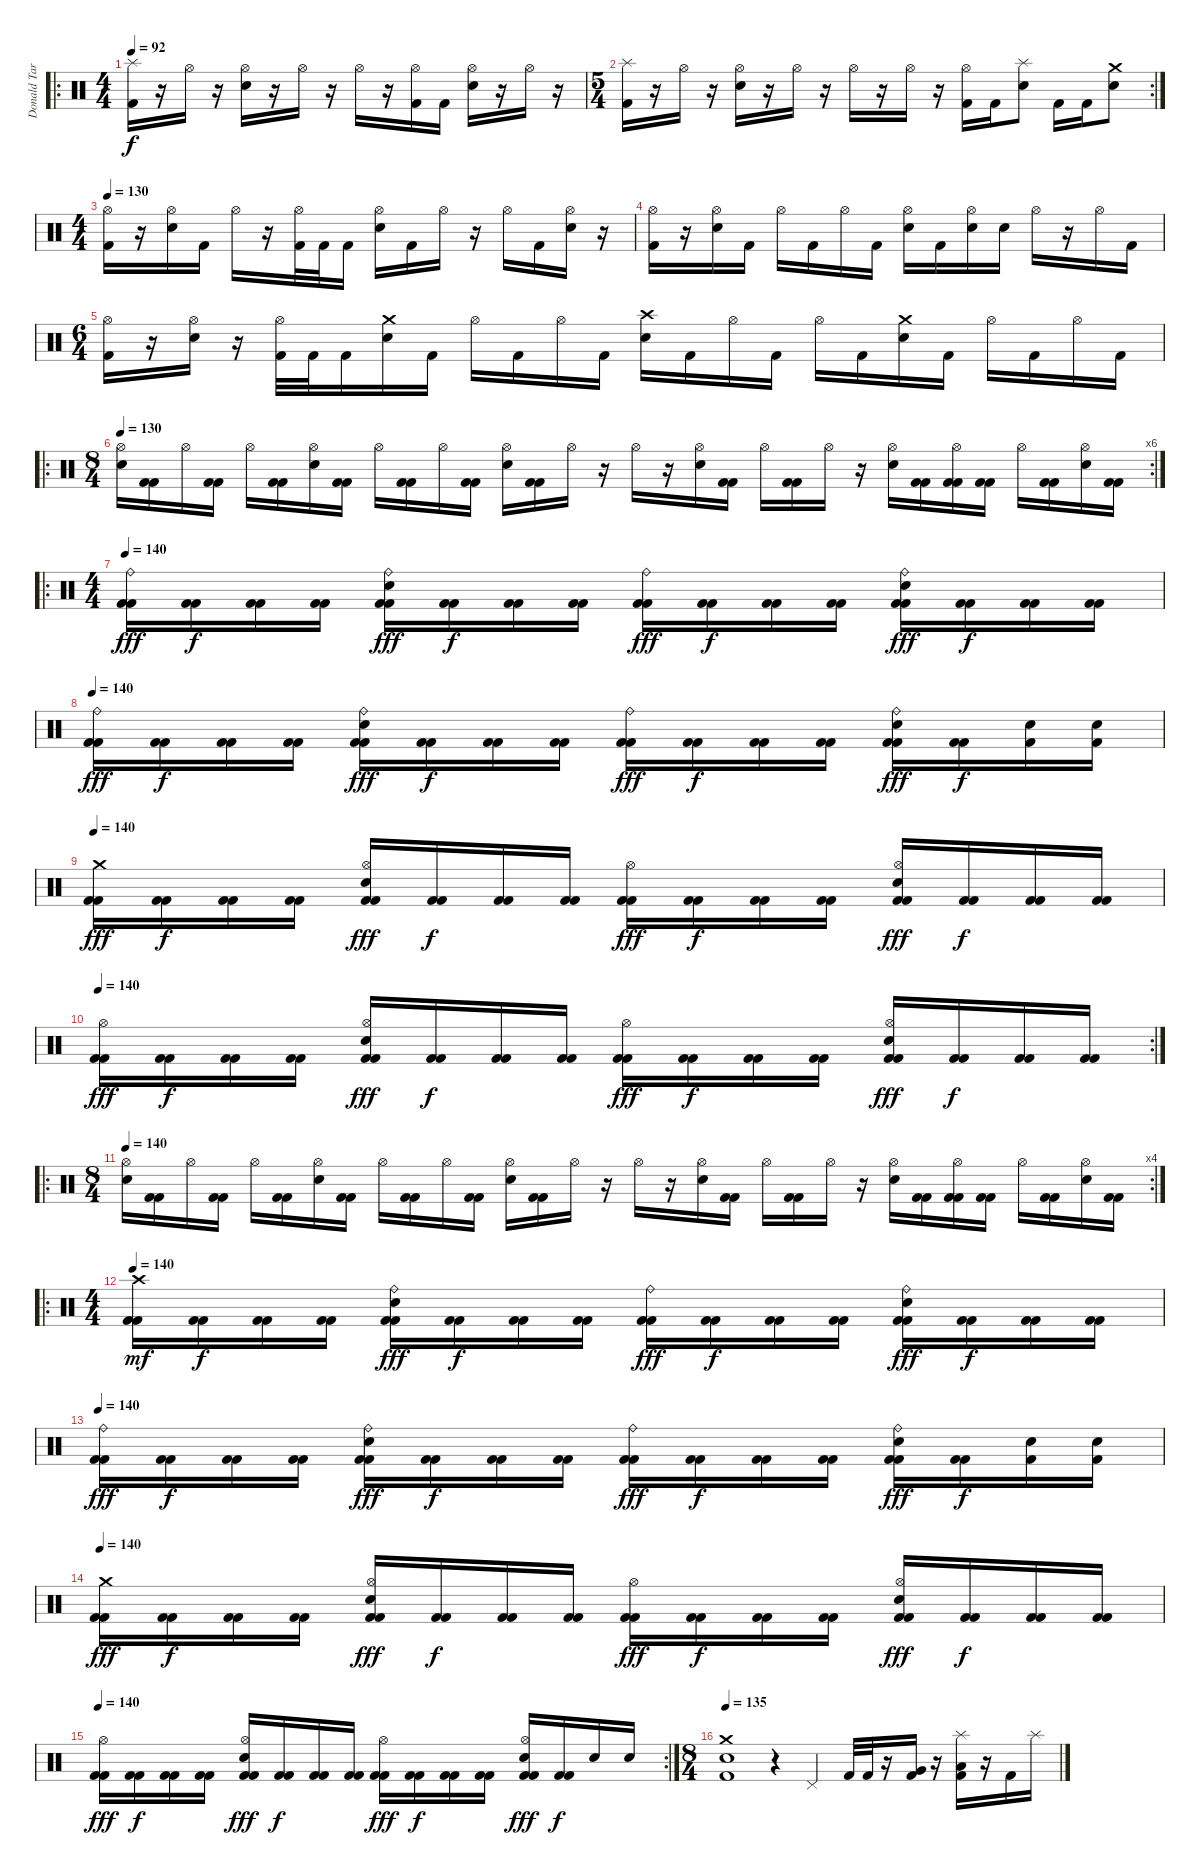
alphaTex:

\track ("Donald Tardy" "Donald Tar") {instrument percussion}
\staff {score}
\articulation defaults
\ro
\ts (4 4)
\tempo 92
\clef neutral
\ks c
("Splash (hit)" "Kick (hit) 2").16{dy f} r.16 "Hi-Hat (open)".16 r.16 ("Hi-Hat (open)" "Electric Snare (hit)").16 r.16 "Hi-Hat (open)".16 r.16 "Hi-Hat (open)".16 r.16 ("Hi-Hat (open)" "Kick (hit) 2").16 "Kick (hit) 2".16 ("Hi-Hat (open)" "Electric Snare (hit)").16 r.16 "Hi-Hat (open)".16 r.16 |
\rc 2
\ts (5 4)
("Splash (hit)" "Kick (hit) 2").16 r.16 "Hi-Hat (open)".16 r.16 ("Hi-Hat (open)" "Electric Snare (hit)").16 r.16 "Hi-Hat (open)".16 r.16 "Hi-Hat (open)".16 r.16 "Hi-Hat (open)".16 r.16 ("Hi-Hat (open)" "Kick (hit) 2").16 "Kick (hit) 2".16 ("Splash (hit)" "Electric Snare (hit)").8 "Kick (hit) 2".16 "Kick (hit) 2".16 ("Crash medium (hit)" "Electric Snare (hit)").8 |
\ts (4 4)
\tempo 130
("Hi-Hat (open)" "Kick (hit) 2").16 r.16 ("Hi-Hat (open)" "Electric Snare (hit)").16 "Kick (hit) 2".16 "Hi-Hat (open)".16 r.16 ("Hi-Hat (open)" "Kick (hit) 2").32 "Kick (hit) 2".32 "Kick (hit) 2".16 ("Hi-Hat (open)" "Electric Snare (hit)").16 "Kick (hit) 2".16 "Hi-Hat (open)".16 r.16 "Hi-Hat (open)".16 "Kick (hit) 2".16 ("Hi-Hat (open)" "Electric Snare (hit)").16 r.16 |
("Hi-Hat (open)" "Kick (hit) 2").16 r.16 ("Hi-Hat (open)" "Electric Snare (hit)").16 "Kick (hit) 2".16 "Hi-Hat (open)".16 "Kick (hit) 2".16 "Hi-Hat (open)".16 "Kick (hit) 2".16 ("Hi-Hat (open)" "Electric Snare (hit)").16 "Kick (hit) 2".16 ("Hi-Hat (open)" "Electric Snare (hit)").16 "Electric Snare (hit)".16 "Hi-Hat (open)".16 r.16 "Hi-Hat (open)".16 "Kick (hit) 2".16 |
\ts (6 4)
("Hi-Hat (open)" "Kick (hit) 2").16 r.16 ("Hi-Hat (open)" "Electric Snare (hit)").16 r.16 ("Hi-Hat (open)" "Kick (hit) 2").32 "Kick (hit) 2".32 "Kick (hit) 2".16 ("Crash medium (hit)" "Electric Snare (hit)").16 "Kick (hit) 2".16 "Hi-Hat (open)".16 "Kick (hit) 2".16 "Hi-Hat (open)".16 "Kick (hit) 2".16 ("Crash high (hit)" "Electric Snare (hit)").16 "Kick (hit) 2".16 "Hi-Hat (open)".16 "Kick (hit) 2".16 "Hi-Hat (open)".16 "Kick (hit) 2".16 ("Crash medium (hit)" "Electric Snare (hit)").16 "Kick (hit) 2".16 "Hi-Hat (open)".16 "Kick (hit) 2".16 "Hi-Hat (open)".16 "Kick (hit) 2".16 |
\ro
\rc 6
\ts (8 4)
\tempo 130
("Hi-Hat (open)" "Electric Snare (hit)").16 ("Kick (hit) 2" "Kick (hit) 2").16 "Hi-Hat (open)".16 ("Kick (hit) 2" "Kick (hit) 2").16 "Hi-Hat (open)".16 ("Kick (hit) 2" "Kick (hit) 2").16 ("Hi-Hat (open)" "Electric Snare (hit)").16 ("Kick (hit) 2" "Kick (hit) 2").16 "Hi-Hat (open)".16 ("Kick (hit) 2" "Kick (hit) 2").16 "Hi-Hat (open)".16 ("Kick (hit) 2" "Kick (hit) 2").16 ("Hi-Hat (open)" "Electric Snare (hit)").16 ("Kick (hit) 2" "Kick (hit) 2").16 "Hi-Hat (open)".16 r.16 "Hi-Hat (open)".16 r.16 ("Hi-Hat (open)" "Electric Snare (hit)").16 ("Kick (hit) 2" "Kick (hit) 2").16 "Hi-Hat (open)".16 ("Kick (hit) 2" "Kick (hit) 2").16 "Hi-Hat (open)".16 r.16 ("Hi-Hat (open)" "Electric Snare (hit)").16 ("Kick (hit) 2" "Kick (hit) 2").16 ("Hi-Hat (open)" "Kick (hit) 2" "Kick (hit) 2").16 ("Kick (hit) 2" "Kick (hit) 2").16 "Hi-Hat (open)".16 ("Kick (hit) 2" "Kick (hit) 2").16 ("Hi-Hat (open)" "Electric Snare (hit)").16 ("Kick (hit) 2" "Kick (hit) 2").16 |
\ro
\ts (4 4)
\tempo 140
("Ride (bell)" "Kick (hit) 2" "Kick (hit) 2").16{dy fff} ("Kick (hit) 2" "Kick (hit) 2").16{dy f} ("Kick (hit) 2" "Kick (hit) 2").16 ("Kick (hit) 2" "Kick (hit) 2").16 ("Ride (bell)" "Electric Snare (hit)" "Kick (hit) 2" "Kick (hit) 2").16{dy fff} ("Kick (hit) 2" "Kick (hit) 2").16{dy f} ("Kick (hit) 2" "Kick (hit) 2").16 ("Kick (hit) 2" "Kick (hit) 2").16 ("Ride (bell)" "Kick (hit) 2" "Kick (hit) 2").16{dy fff} ("Kick (hit) 2" "Kick (hit) 2").16{dy f} ("Kick (hit) 2" "Kick (hit) 2").16 ("Kick (hit) 2" "Kick (hit) 2").16 ("Ride (bell)" "Electric Snare (hit)" "Kick (hit) 2" "Kick (hit) 2").16{dy fff} ("Kick (hit) 2" "Kick (hit) 2").16{dy f} ("Kick (hit) 2" "Kick (hit) 2").16 ("Kick (hit) 2" "Kick (hit) 2").16 |
\tempo 140
("Ride (bell)" "Kick (hit) 2" "Kick (hit) 2").16{dy fff} ("Kick (hit) 2" "Kick (hit) 2").16{dy f} ("Kick (hit) 2" "Kick (hit) 2").16 ("Kick (hit) 2" "Kick (hit) 2").16 ("Ride (bell)" "Electric Snare (hit)" "Kick (hit) 2" "Kick (hit) 2").16{dy fff} ("Kick (hit) 2" "Kick (hit) 2").16{dy f} ("Kick (hit) 2" "Kick (hit) 2").16 ("Kick (hit) 2" "Kick (hit) 2").16 ("Ride (bell)" "Kick (hit) 2" "Kick (hit) 2").16{dy fff} ("Kick (hit) 2" "Kick (hit) 2").16{dy f} ("Kick (hit) 2" "Kick (hit) 2").16 ("Kick (hit) 2" "Kick (hit) 2").16 ("Ride (bell)" "Electric Snare (hit)" "Kick (hit) 2" "Kick (hit) 2").16{dy fff} ("Kick (hit) 2" "Kick (hit) 2").16{dy f} ("Electric Snare (hit)" "Kick (hit) 2").16 ("Electric Snare (hit)" "Kick (hit) 2").16 |
\tempo 140
("Crash medium (hit)" "Kick (hit) 2" "Kick (hit) 2").16{dy fff} ("Kick (hit) 2" "Kick (hit) 2").16{dy f} ("Kick (hit) 2" "Kick (hit) 2").16 ("Kick (hit) 2" "Kick (hit) 2").16 ("Hi-Hat (open)" "Electric Snare (hit)" "Kick (hit) 2" "Kick (hit) 2").16{dy fff} ("Kick (hit) 2" "Kick (hit) 2").16{dy f} ("Kick (hit) 2" "Kick (hit) 2").16 ("Kick (hit) 2" "Kick (hit) 2").16 ("Hi-Hat (open)" "Kick (hit) 2" "Kick (hit) 2").16{dy fff} ("Kick (hit) 2" "Kick (hit) 2").16{dy f} ("Kick (hit) 2" "Kick (hit) 2").16 ("Kick (hit) 2" "Kick (hit) 2").16 ("Hi-Hat (open)" "Electric Snare (hit)" "Kick (hit) 2" "Kick (hit) 2").16{dy fff} ("Kick (hit) 2" "Kick (hit) 2").16{dy f} ("Kick (hit) 2" "Kick (hit) 2").16 ("Kick (hit) 2" "Kick (hit) 2").16 |
\rc 2
\tempo 140
("Hi-Hat (open)" "Kick (hit) 2" "Kick (hit) 2").16{dy fff} ("Kick (hit) 2" "Kick (hit) 2").16{dy f} ("Kick (hit) 2" "Kick (hit) 2").16 ("Kick (hit) 2" "Kick (hit) 2").16 ("Hi-Hat (open)" "Electric Snare (hit)" "Kick (hit) 2" "Kick (hit) 2").16{dy fff} ("Kick (hit) 2" "Kick (hit) 2").16{dy f} ("Kick (hit) 2" "Kick (hit) 2").16 ("Kick (hit) 2" "Kick (hit) 2").16 ("Hi-Hat (open)" "Kick (hit) 2" "Kick (hit) 2").16{dy fff} ("Kick (hit) 2" "Kick (hit) 2").16{dy f} ("Kick (hit) 2" "Kick (hit) 2").16 ("Kick (hit) 2" "Kick (hit) 2").16 ("Hi-Hat (open)" "Electric Snare (hit)" "Kick (hit) 2" "Kick (hit) 2").16{dy fff} ("Kick (hit) 2" "Kick (hit) 2").16{dy f} ("Kick (hit) 2" "Kick (hit) 2").16 ("Kick (hit) 2" "Kick (hit) 2").16 |
\ro
\rc 4
\ts (8 4)
\tempo 140
("Hi-Hat (open)" "Electric Snare (hit)").16 ("Kick (hit) 2" "Kick (hit) 2").16 "Hi-Hat (open)".16 ("Kick (hit) 2" "Kick (hit) 2").16 "Hi-Hat (open)".16 ("Kick (hit) 2" "Kick (hit) 2").16 ("Hi-Hat (open)" "Electric Snare (hit)").16 ("Kick (hit) 2" "Kick (hit) 2").16 "Hi-Hat (open)".16 ("Kick (hit) 2" "Kick (hit) 2").16 "Hi-Hat (open)".16 ("Kick (hit) 2" "Kick (hit) 2").16 ("Hi-Hat (open)" "Electric Snare (hit)").16 ("Kick (hit) 2" "Kick (hit) 2").16 "Hi-Hat (open)".16 r.16 "Hi-Hat (open)".16 r.16 ("Hi-Hat (open)" "Electric Snare (hit)").16 ("Kick (hit) 2" "Kick (hit) 2").16 "Hi-Hat (open)".16 ("Kick (hit) 2" "Kick (hit) 2").16 "Hi-Hat (open)".16 r.16 ("Hi-Hat (open)" "Electric Snare (hit)").16 ("Kick (hit) 2" "Kick (hit) 2").16 ("Hi-Hat (open)" "Kick (hit) 2" "Kick (hit) 2").16 ("Kick (hit) 2" "Kick (hit) 2").16 "Hi-Hat (open)".16 ("Kick (hit) 2" "Kick (hit) 2").16 ("Hi-Hat (open)" "Electric Snare (hit)").16 ("Kick (hit) 2" "Kick (hit) 2").16 |
\ro
\ts (4 4)
\tempo 140
("Crash high (hit)" "Kick (hit) 2" "Kick (hit) 2").16{dy mf} ("Kick (hit) 2" "Kick (hit) 2").16{dy f} ("Kick (hit) 2" "Kick (hit) 2").16 ("Kick (hit) 2" "Kick (hit) 2").16 ("Ride (bell)" "Electric Snare (hit)" "Kick (hit) 2" "Kick (hit) 2").16{dy fff} ("Kick (hit) 2" "Kick (hit) 2").16{dy f} ("Kick (hit) 2" "Kick (hit) 2").16 ("Kick (hit) 2" "Kick (hit) 2").16 ("Ride (bell)" "Kick (hit) 2" "Kick (hit) 2").16{dy fff} ("Kick (hit) 2" "Kick (hit) 2").16{dy f} ("Kick (hit) 2" "Kick (hit) 2").16 ("Kick (hit) 2" "Kick (hit) 2").16 ("Ride (bell)" "Electric Snare (hit)" "Kick (hit) 2" "Kick (hit) 2").16{dy fff} ("Kick (hit) 2" "Kick (hit) 2").16{dy f} ("Kick (hit) 2" "Kick (hit) 2").16 ("Kick (hit) 2" "Kick (hit) 2").16 |
\tempo 140
("Ride (bell)" "Kick (hit) 2" "Kick (hit) 2").16{dy fff} ("Kick (hit) 2" "Kick (hit) 2").16{dy f} ("Kick (hit) 2" "Kick (hit) 2").16 ("Kick (hit) 2" "Kick (hit) 2").16 ("Ride (bell)" "Electric Snare (hit)" "Kick (hit) 2" "Kick (hit) 2").16{dy fff} ("Kick (hit) 2" "Kick (hit) 2").16{dy f} ("Kick (hit) 2" "Kick (hit) 2").16 ("Kick (hit) 2" "Kick (hit) 2").16 ("Ride (bell)" "Kick (hit) 2" "Kick (hit) 2").16{dy fff} ("Kick (hit) 2" "Kick (hit) 2").16{dy f} ("Kick (hit) 2" "Kick (hit) 2").16 ("Kick (hit) 2" "Kick (hit) 2").16 ("Ride (bell)" "Electric Snare (hit)" "Kick (hit) 2" "Kick (hit) 2").16{dy fff} ("Kick (hit) 2" "Kick (hit) 2").16{dy f} ("Electric Snare (hit)" "Kick (hit) 2").16 ("Electric Snare (hit)" "Kick (hit) 2").16 |
\tempo 140
("Crash medium (hit)" "Kick (hit) 2" "Kick (hit) 2").16{dy fff} ("Kick (hit) 2" "Kick (hit) 2").16{dy f} ("Kick (hit) 2" "Kick (hit) 2").16 ("Kick (hit) 2" "Kick (hit) 2").16 ("Hi-Hat (open)" "Electric Snare (hit)" "Kick (hit) 2" "Kick (hit) 2").16{dy fff} ("Kick (hit) 2" "Kick (hit) 2").16{dy f} ("Kick (hit) 2" "Kick (hit) 2").16 ("Kick (hit) 2" "Kick (hit) 2").16 ("Hi-Hat (open)" "Kick (hit) 2" "Kick (hit) 2").16{dy fff} ("Kick (hit) 2" "Kick (hit) 2").16{dy f} ("Kick (hit) 2" "Kick (hit) 2").16 ("Kick (hit) 2" "Kick (hit) 2").16 ("Hi-Hat (open)" "Electric Snare (hit)" "Kick (hit) 2" "Kick (hit) 2").16{dy fff} ("Kick (hit) 2" "Kick (hit) 2").16{dy f} ("Kick (hit) 2" "Kick (hit) 2").16 ("Kick (hit) 2" "Kick (hit) 2").16 |
\rc 2
\tempo 140
("Hi-Hat (open)" "Kick (hit) 2" "Kick (hit) 2").16{dy fff} ("Kick (hit) 2" "Kick (hit) 2").16{dy f} ("Kick (hit) 2" "Kick (hit) 2").16 ("Kick (hit) 2" "Kick (hit) 2").16 ("Hi-Hat (open)" "Electric Snare (hit)" "Kick (hit) 2" "Kick (hit) 2").16{dy fff} ("Kick (hit) 2" "Kick (hit) 2").16{dy f} ("Kick (hit) 2" "Kick (hit) 2").16 ("Kick (hit) 2" "Kick (hit) 2").16 ("Hi-Hat (open)" "Kick (hit) 2" "Kick (hit) 2").16{dy fff} ("Kick (hit) 2" "Kick (hit) 2").16{dy f} ("Kick (hit) 2" "Kick (hit) 2").16 ("Kick (hit) 2" "Kick (hit) 2").16 ("Hi-Hat (open)" "Electric Snare (hit)" "Kick (hit) 2" "Kick (hit) 2").16{dy fff} ("Kick (hit) 2" "Kick (hit) 2").16{dy f} "Electric Snare (hit)".16 "Electric Snare (hit)".16 |
\ts (8 4)
\tempo 135
("Crash medium (hit)" "Electric Snare (hit)" "Kick (hit) 2").1 r.4 "Pedal Hi-Hat (hit)".4 "Kick (hit) 2".32 "Kick (hit) 2".32 r.16 ("Very Low Tom (hit)" "Kick (hit) 2").16 r.16 ("Splash (hit)" "Low Floor Tom (hit)" "Kick (hit) 2").16 r.16 "Kick (hit) 2".16 "Splash (hit)".16
